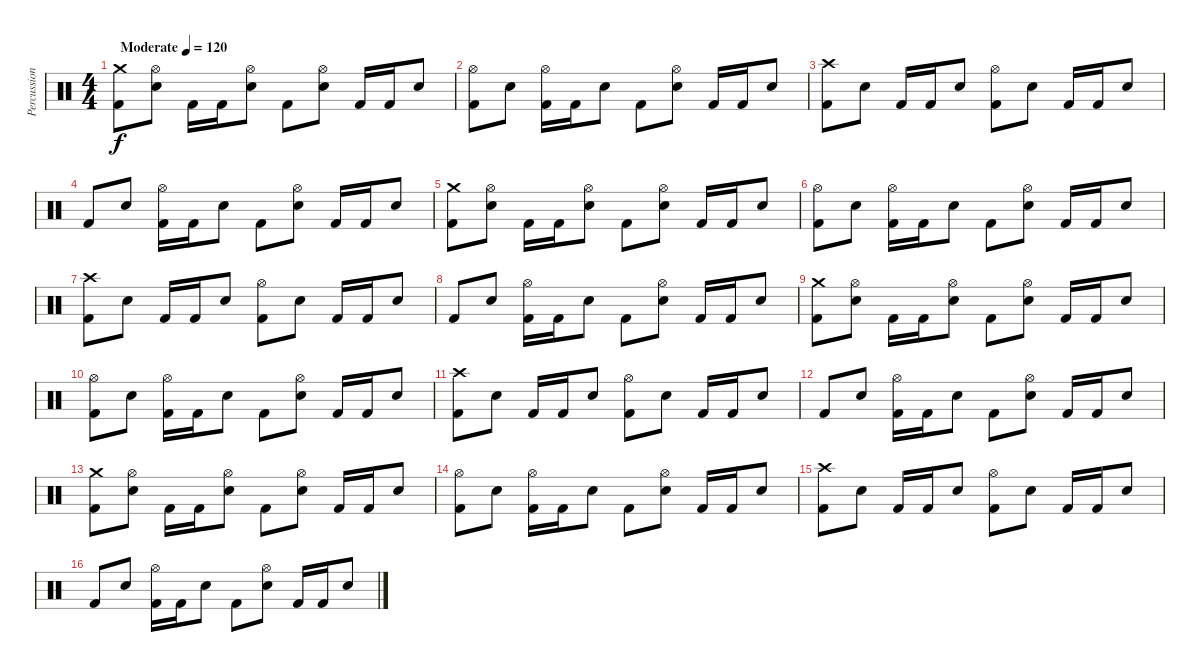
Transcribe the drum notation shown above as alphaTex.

\track ("Percussion" "Percussion") {instrument percussion}
\staff {score}
\articulation defaults
\ts (4 4)
\tempo (120 "Moderate")
\clef neutral
\ks aminor
("Kick (hit) 2" "Crash medium (hit)").8{dy f} ("Snare (hit) 2" "Hi-Hat (open)").8 "Kick (hit) 2".16 "Kick (hit) 2".16 ("Snare (hit) 2" "Hi-Hat (open)").8 "Kick (hit) 2".8 ("Snare (hit) 2" "Hi-Hat (open)").8 "Kick (hit) 2".16 "Kick (hit) 2".16 "Snare (hit) 2".8 |
("Kick (hit) 2" "Hi-Hat (open)").8 "Snare (hit) 2".8 ("Kick (hit) 2" "Hi-Hat (open)").16 "Kick (hit) 2".16 "Snare (hit) 2".8 "Kick (hit) 2".8 ("Snare (hit) 2" "Hi-Hat (open)").8 "Kick (hit) 2".16 "Kick (hit) 2".16 "Snare (hit) 2".8 |
("Kick (hit) 2" "Crash high (hit)").8 "Snare (hit) 2".8 "Kick (hit) 2".16 "Kick (hit) 2".16 "Snare (hit) 2".8 ("Kick (hit) 2" "Hi-Hat (open)").8 "Snare (hit) 2".8 "Kick (hit) 2".16 "Kick (hit) 2".16 "Snare (hit) 2".8 |
"Kick (hit) 2".8 "Snare (hit) 2".8 ("Kick (hit) 2" "Hi-Hat (open)").16 "Kick (hit) 2".16 "Snare (hit) 2".8 "Kick (hit) 2".8 ("Snare (hit) 2" "Hi-Hat (open)").8 "Kick (hit) 2".16 "Kick (hit) 2".16 "Snare (hit) 2".8 |
("Kick (hit) 2" "Crash medium (hit)").8 ("Snare (hit) 2" "Hi-Hat (open)").8 "Kick (hit) 2".16 "Kick (hit) 2".16 ("Snare (hit) 2" "Hi-Hat (open)").8 "Kick (hit) 2".8 ("Snare (hit) 2" "Hi-Hat (open)").8 "Kick (hit) 2".16 "Kick (hit) 2".16 "Snare (hit) 2".8 |
("Kick (hit) 2" "Hi-Hat (open)").8 "Snare (hit) 2".8 ("Kick (hit) 2" "Hi-Hat (open)").16 "Kick (hit) 2".16 "Snare (hit) 2".8 "Kick (hit) 2".8 ("Snare (hit) 2" "Hi-Hat (open)").8 "Kick (hit) 2".16 "Kick (hit) 2".16 "Snare (hit) 2".8 |
("Kick (hit) 2" "Crash high (hit)").8 "Snare (hit) 2".8 "Kick (hit) 2".16 "Kick (hit) 2".16 "Snare (hit) 2".8 ("Kick (hit) 2" "Hi-Hat (open)").8 "Snare (hit) 2".8 "Kick (hit) 2".16 "Kick (hit) 2".16 "Snare (hit) 2".8 |
"Kick (hit) 2".8 "Snare (hit) 2".8 ("Kick (hit) 2" "Hi-Hat (open)").16 "Kick (hit) 2".16 "Snare (hit) 2".8 "Kick (hit) 2".8 ("Snare (hit) 2" "Hi-Hat (open)").8 "Kick (hit) 2".16 "Kick (hit) 2".16 "Snare (hit) 2".8 |
("Kick (hit) 2" "Crash medium (hit)").8 ("Snare (hit) 2" "Hi-Hat (open)").8 "Kick (hit) 2".16 "Kick (hit) 2".16 ("Snare (hit) 2" "Hi-Hat (open)").8 "Kick (hit) 2".8 ("Snare (hit) 2" "Hi-Hat (open)").8 "Kick (hit) 2".16 "Kick (hit) 2".16 "Snare (hit) 2".8 |
("Kick (hit) 2" "Hi-Hat (open)").8 "Snare (hit) 2".8 ("Kick (hit) 2" "Hi-Hat (open)").16 "Kick (hit) 2".16 "Snare (hit) 2".8 "Kick (hit) 2".8 ("Snare (hit) 2" "Hi-Hat (open)").8 "Kick (hit) 2".16 "Kick (hit) 2".16 "Snare (hit) 2".8 |
("Kick (hit) 2" "Crash high (hit)").8 "Snare (hit) 2".8 "Kick (hit) 2".16 "Kick (hit) 2".16 "Snare (hit) 2".8 ("Kick (hit) 2" "Hi-Hat (open)").8 "Snare (hit) 2".8 "Kick (hit) 2".16 "Kick (hit) 2".16 "Snare (hit) 2".8 |
"Kick (hit) 2".8 "Snare (hit) 2".8 ("Kick (hit) 2" "Hi-Hat (open)").16 "Kick (hit) 2".16 "Snare (hit) 2".8 "Kick (hit) 2".8 ("Snare (hit) 2" "Hi-Hat (open)").8 "Kick (hit) 2".16 "Kick (hit) 2".16 "Snare (hit) 2".8 |
("Kick (hit) 2" "Crash medium (hit)").8 ("Snare (hit) 2" "Hi-Hat (open)").8 "Kick (hit) 2".16 "Kick (hit) 2".16 ("Snare (hit) 2" "Hi-Hat (open)").8 "Kick (hit) 2".8 ("Snare (hit) 2" "Hi-Hat (open)").8 "Kick (hit) 2".16 "Kick (hit) 2".16 "Snare (hit) 2".8 |
("Kick (hit) 2" "Hi-Hat (open)").8 "Snare (hit) 2".8 ("Kick (hit) 2" "Hi-Hat (open)").16 "Kick (hit) 2".16 "Snare (hit) 2".8 "Kick (hit) 2".8 ("Snare (hit) 2" "Hi-Hat (open)").8 "Kick (hit) 2".16 "Kick (hit) 2".16 "Snare (hit) 2".8 |
("Kick (hit) 2" "Crash high (hit)").8 "Snare (hit) 2".8 "Kick (hit) 2".16 "Kick (hit) 2".16 "Snare (hit) 2".8 ("Kick (hit) 2" "Hi-Hat (open)").8 "Snare (hit) 2".8 "Kick (hit) 2".16 "Kick (hit) 2".16 "Snare (hit) 2".8 |
"Kick (hit) 2".8 "Snare (hit) 2".8 ("Kick (hit) 2" "Hi-Hat (open)").16 "Kick (hit) 2".16 "Snare (hit) 2".8 "Kick (hit) 2".8 ("Snare (hit) 2" "Hi-Hat (open)").8 "Kick (hit) 2".16 "Kick (hit) 2".16 "Snare (hit) 2".8
